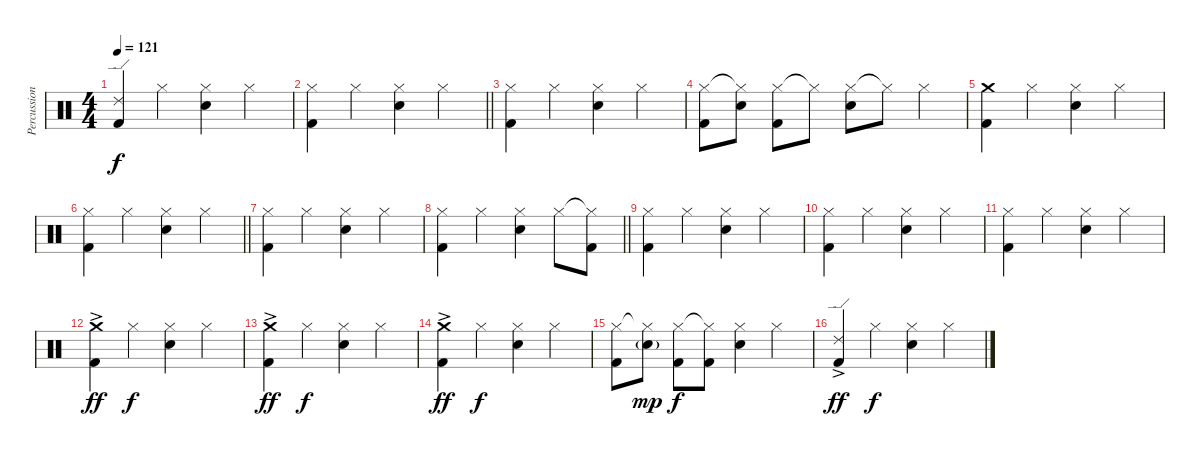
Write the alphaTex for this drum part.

\track ("Percussioni" "Percussion") {instrument percussion}
\staff {score}
\articulation defaults
\ts (4 4)
\tempo 121
\clef neutral
\ks c
("Ride (edge) 2" "Kick (hit) 2").4{dy f} "Hi-Hat (closed)".4 ("Hi-Hat (closed)" "Snare (hit) 2").4 "Hi-Hat (closed)".4 |
\barLineRight lightlight
("Hi-Hat (closed)" "Kick (hit) 2").4 "Hi-Hat (closed)".4 ("Hi-Hat (closed)" "Snare (hit) 2").4 "Hi-Hat (closed)".4 |
("Hi-Hat (closed)" "Kick (hit) 2").4 "Hi-Hat (closed)".4 ("Hi-Hat (closed)" "Snare (hit) 2").4 "Hi-Hat (closed)".4 |
("Hi-Hat (closed)" "Kick (hit) 2").8 ("Hi-Hat (closed)"{t} "Snare (hit) 2").8 ("Hi-Hat (closed)" "Kick (hit) 2").8 "Hi-Hat (closed)"{t}.8 ("Hi-Hat (closed)" "Snare (hit) 2").8 "Hi-Hat (closed)"{t}.8 "Hi-Hat (closed)".4 |
("Crash medium (hit)" "Kick (hit) 2").4 "Hi-Hat (closed)".4 ("Hi-Hat (closed)" "Snare (hit) 2").4 "Hi-Hat (closed)".4 |
\barLineRight lightlight
("Hi-Hat (closed)" "Kick (hit) 2").4 "Hi-Hat (closed)".4 ("Hi-Hat (closed)" "Snare (hit) 2").4 "Hi-Hat (closed)".4 |
("Hi-Hat (closed)" "Kick (hit) 2").4 "Hi-Hat (closed)".4 ("Hi-Hat (closed)" "Snare (hit) 2").4 "Hi-Hat (closed)".4 |
\barLineRight lightlight
("Hi-Hat (closed)" "Kick (hit) 2").4 "Hi-Hat (closed)".4 ("Hi-Hat (closed)" "Snare (hit) 2").4 "Hi-Hat (closed)".8 ("Hi-Hat (closed)"{t} "Kick (hit) 2").8 |
("Hi-Hat (closed)" "Kick (hit) 2").4 "Hi-Hat (closed)".4 ("Hi-Hat (closed)" "Snare (hit) 2").4 "Hi-Hat (closed)".4 |
("Hi-Hat (closed)" "Kick (hit) 2").4 "Hi-Hat (closed)".4 ("Hi-Hat (closed)" "Snare (hit) 2").4 "Hi-Hat (closed)".4 |
("Hi-Hat (closed)" "Kick (hit) 2").4 "Hi-Hat (closed)".4 ("Hi-Hat (closed)" "Snare (hit) 2").4 "Hi-Hat (closed)".4 |
("Crash medium (hit)"{ac} "Kick (hit) 2").4{dy ff} "Hi-Hat (closed)".4{dy f} ("Hi-Hat (closed)" "Snare (hit) 2").4 "Hi-Hat (closed)".4 |
("Crash medium (hit)"{ac} "Kick (hit) 2").4{dy ff} "Hi-Hat (closed)".4{dy f} ("Hi-Hat (closed)" "Snare (hit) 2").4 "Hi-Hat (closed)".4 |
("Crash medium (hit)"{ac} "Kick (hit) 2").4{dy ff} "Hi-Hat (closed)".4{dy f} ("Hi-Hat (closed)" "Snare (hit) 2").4 "Hi-Hat (closed)".4 |
("Hi-Hat (closed)" "Kick (hit) 2").8 ("Hi-Hat (closed)"{t} "Snare (hit) 2"{g}).8{dy mp} ("Hi-Hat (closed)" "Kick (hit) 2").8{dy f} ("Hi-Hat (closed)"{t} "Kick (hit) 2").8 ("Hi-Hat (closed)" "Snare (hit) 2").4 "Hi-Hat (closed)".4 |
("Ride (edge) 2"{ac} "Kick (hit) 2").4{dy ff} "Hi-Hat (closed)".4{dy f} ("Hi-Hat (closed)" "Snare (hit) 2").4 "Hi-Hat (closed)".4
